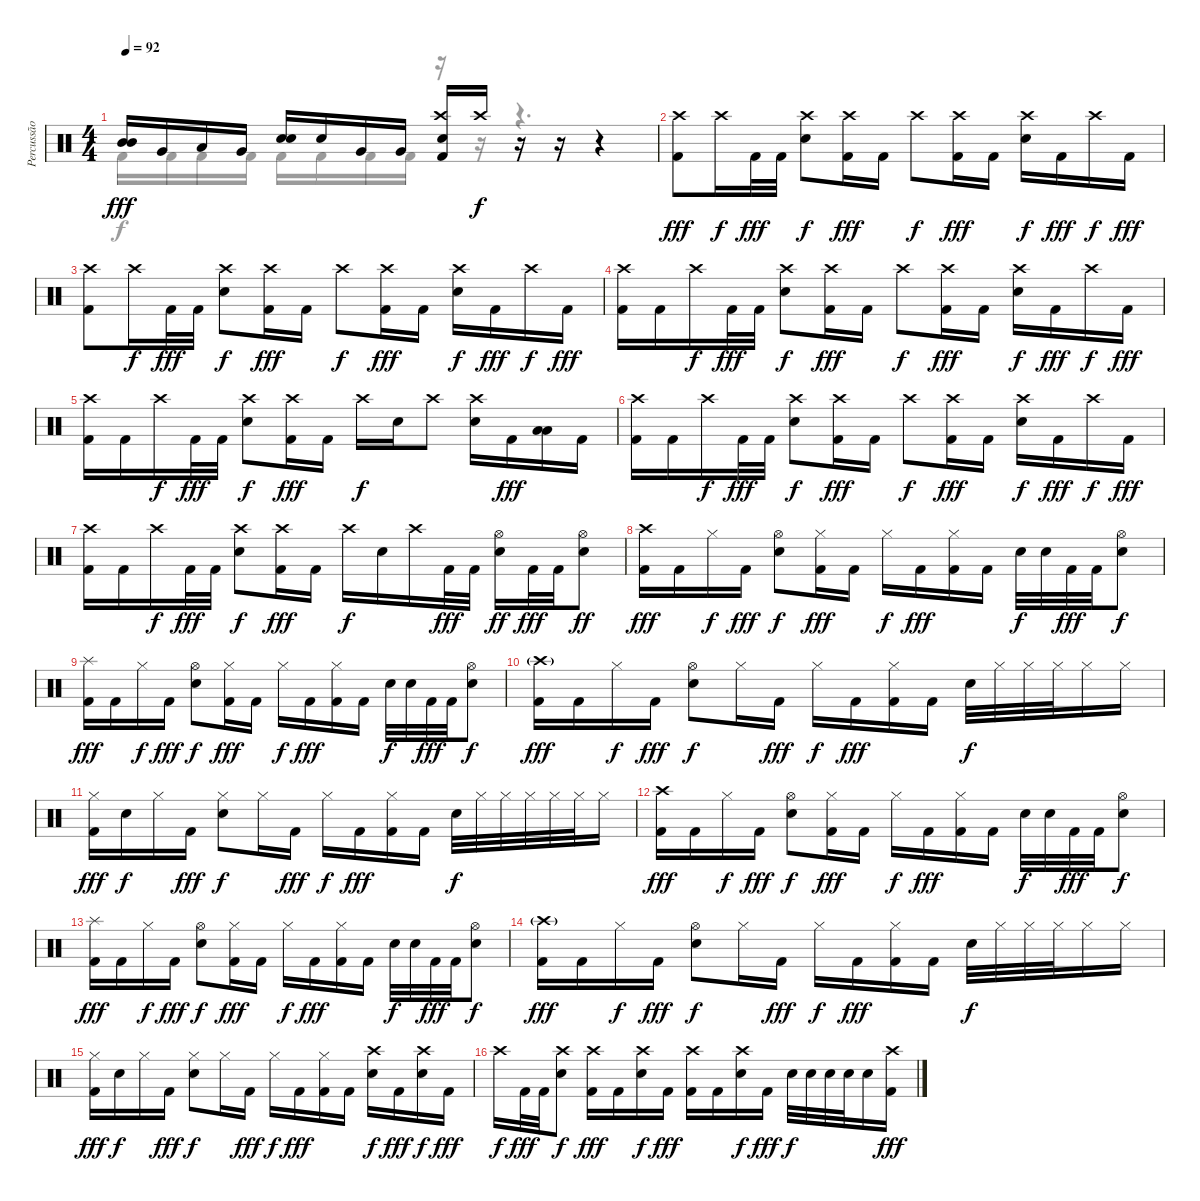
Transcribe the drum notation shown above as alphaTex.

\track ("Percussão" "Percussão") {instrument percussion}
\staff {score}
\articulation defaults
\voice
\ts (4 4)
\tempo 92
\clef neutral
\ks c
("Mid Tom (hit)" "Mid Tom (hit)").16{bd 60 dy fff} "Very Low Tom (hit)".16 "Low Tom (hit)".16 "Very Low Tom (hit)".16 ("Electric Snare (hit)" "Electric Snare (hit)").16{bd 60} "Electric Snare (hit)".16 "Very Low Tom (hit)".16 "Very Low Tom (hit)".16 ("Crash high (hit)" "Electric Snare (hit)" "Kick (hit) 2").16{volume 11} "Crash high (hit)".16{dy f volume 0} r.16 r.16 r.4 |
("Crash high (hit)" "Kick (hit) 2").8{dy fff volume 11} "Crash high (hit)".16{dy f} "Kick (hit) 2".32{dy fff} "Kick (hit) 2".32 ("Crash high (hit)" "Electric Snare (hit)").8{dy f} ("Crash high (hit)" "Kick (hit) 2").16{dy fff} "Kick (hit) 2".16 "Crash high (hit)".8{dy f} ("Crash high (hit)" "Kick (hit) 2").16{dy fff} "Kick (hit) 2".16 ("Crash high (hit)" "Electric Snare (hit)").16{dy f} "Kick (hit) 2".16{dy fff} "Crash high (hit)".16{dy f} "Kick (hit) 2".16{dy fff} |
("Crash high (hit)" "Kick (hit) 2").8 "Crash high (hit)".16{dy f} "Kick (hit) 2".32{dy fff} "Kick (hit) 2".32 ("Crash high (hit)" "Electric Snare (hit)").8{dy f} ("Crash high (hit)" "Kick (hit) 2").16{dy fff} "Kick (hit) 2".16 "Crash high (hit)".8{dy f} ("Crash high (hit)" "Kick (hit) 2").16{dy fff} "Kick (hit) 2".16 ("Crash high (hit)" "Electric Snare (hit)").16{dy f} "Kick (hit) 2".16{dy fff} "Crash high (hit)".16{dy f} "Kick (hit) 2".16{dy fff} |
("Crash high (hit)" "Kick (hit) 2").16 "Kick (hit) 2".16 "Crash high (hit)".16{dy f} "Kick (hit) 2".32{dy fff} "Kick (hit) 2".32 ("Crash high (hit)" "Electric Snare (hit)").8{dy f} ("Crash high (hit)" "Kick (hit) 2").16{dy fff} "Kick (hit) 2".16 "Crash high (hit)".8{dy f} ("Crash high (hit)" "Kick (hit) 2").16{dy fff} "Kick (hit) 2".16 ("Crash high (hit)" "Electric Snare (hit)").16{dy f} "Kick (hit) 2".16{dy fff} "Crash high (hit)".16{dy f} "Kick (hit) 2".16{dy fff} |
("Crash high (hit)" "Kick (hit) 2").16 "Kick (hit) 2".16 "Crash high (hit)".16{dy f} "Kick (hit) 2".32{dy fff} "Kick (hit) 2".32 ("Crash high (hit)" "Electric Snare (hit)").8{dy f} ("Crash high (hit)" "Kick (hit) 2").16{dy fff} "Kick (hit) 2".16 "Crash high (hit)".16{dy f} "Electric Snare (hit)".16 "Crash high (hit)".8 ("Crash high (hit)" "Electric Snare (hit)").16 "Kick (hit) 2".16{dy fff} ("Low Tom (hit)" "Low Tom (hit)").16{bd 120 volume 16} "Kick (hit) 2".16{volume 11} |
("Crash high (hit)" "Kick (hit) 2").16 "Kick (hit) 2".16 "Crash high (hit)".16{dy f} "Kick (hit) 2".32{dy fff} "Kick (hit) 2".32 ("Crash high (hit)" "Electric Snare (hit)").8{dy f} ("Crash high (hit)" "Kick (hit) 2").16{dy fff} "Kick (hit) 2".16 "Crash high (hit)".8{dy f} ("Crash high (hit)" "Kick (hit) 2").16{dy fff} "Kick (hit) 2".16 ("Crash high (hit)" "Electric Snare (hit)").16{dy f} "Kick (hit) 2".16{dy fff} "Crash high (hit)".16{dy f} "Kick (hit) 2".16{dy fff} |
("Crash high (hit)" "Kick (hit) 2").16 "Kick (hit) 2".16 "Crash high (hit)".16{dy f} "Kick (hit) 2".32{dy fff} "Kick (hit) 2".32 ("Crash high (hit)" "Electric Snare (hit)").8{dy f} ("Crash high (hit)" "Kick (hit) 2").16{dy fff} "Kick (hit) 2".16 "Crash high (hit)".16{dy f} "Electric Snare (hit)".16 "Crash high (hit)".16 "Kick (hit) 2".32{dy fff} "Kick (hit) 2".32 ("Hi-Hat (open)" "Electric Snare (hit)").16{dy ff} "Kick (hit) 2".32{dy fff} "Kick (hit) 2".32 ("Hi-Hat (open)" "Electric Snare (hit)").8{dy ff} |
("Crash high (hit)" "Kick (hit) 2").16{dy fff} "Kick (hit) 2".16 "Hi-Hat (closed)".16{dy f} "Kick (hit) 2".16{dy fff} ("Hi-Hat (open)" "Electric Snare (hit)").8{dy f} ("Hi-Hat (closed)" "Kick (hit) 2").16{dy fff} "Kick (hit) 2".16 "Hi-Hat (closed)".16{dy f} "Kick (hit) 2".16{dy fff} ("Hi-Hat (closed)" "Kick (hit) 2").16 "Kick (hit) 2".16 "Electric Snare (hit)".32{dy f} "Electric Snare (hit)".32 "Kick (hit) 2".32{dy fff} "Kick (hit) 2".32 ("Hi-Hat (open)" "Electric Snare (hit)").8{dy f} |
("Splash (hit)" "Kick (hit) 2").16{dy fff} "Kick (hit) 2".16 "Hi-Hat (closed)".16{dy f} "Kick (hit) 2".16{dy fff} ("Hi-Hat (open)" "Electric Snare (hit)").8{dy f} ("Hi-Hat (closed)" "Kick (hit) 2").16{dy fff} "Kick (hit) 2".16 "Hi-Hat (closed)".16{dy f} "Kick (hit) 2".16{dy fff} ("Hi-Hat (closed)" "Kick (hit) 2").16 "Kick (hit) 2".16 "Electric Snare (hit)".32{dy f} "Electric Snare (hit)".32 "Kick (hit) 2".32{dy fff} "Kick (hit) 2".32 ("Hi-Hat (open)" "Electric Snare (hit)").8{dy f} |
("Crash high (hit)"{g} "Kick (hit) 2").16{dy fff} "Kick (hit) 2".16 "Hi-Hat (closed)".16{dy f} "Kick (hit) 2".16{dy fff} ("Hi-Hat (open)" "Electric Snare (hit)").8{dy f} "Hi-Hat (closed)".16 "Kick (hit) 2".16{dy fff} "Hi-Hat (closed)".16{dy f} "Kick (hit) 2".16{dy fff} ("Hi-Hat (closed)" "Kick (hit) 2").16 "Kick (hit) 2".16 "Electric Snare (hit)".32{dy f} "Hi-Hat (closed)".32 "Hi-Hat (closed)".32 "Hi-Hat (closed)".32 "Hi-Hat (closed)".16 "Hi-Hat (closed)".16 |
("Hi-Hat (closed)" "Kick (hit) 2").16{dy fff} "Electric Snare (hit)".16{dy f} "Hi-Hat (closed)".16 "Kick (hit) 2".16{dy fff} ("Hi-Hat (closed)" "Electric Snare (hit)").8{dy f} "Hi-Hat (closed)".16 "Kick (hit) 2".16{dy fff} "Hi-Hat (closed)".16{dy f} "Kick (hit) 2".16{dy fff} ("Hi-Hat (closed)" "Kick (hit) 2").16 "Kick (hit) 2".16 "Electric Snare (hit)".32{dy f} "Hi-Hat (closed)".32 "Hi-Hat (closed)".32 "Hi-Hat (closed)".32 "Hi-Hat (closed)".32 "Hi-Hat (closed)".32 "Hi-Hat (closed)".16 |
("Crash high (hit)" "Kick (hit) 2").16{dy fff} "Kick (hit) 2".16 "Hi-Hat (closed)".16{dy f} "Kick (hit) 2".16{dy fff} ("Hi-Hat (open)" "Electric Snare (hit)").8{dy f} ("Hi-Hat (closed)" "Kick (hit) 2").16{dy fff} "Kick (hit) 2".16 "Hi-Hat (closed)".16{dy f} "Kick (hit) 2".16{dy fff} ("Hi-Hat (closed)" "Kick (hit) 2").16 "Kick (hit) 2".16 "Electric Snare (hit)".32{dy f} "Electric Snare (hit)".32 "Kick (hit) 2".32{dy fff} "Kick (hit) 2".32 ("Hi-Hat (open)" "Electric Snare (hit)").8{dy f} |
("Splash (hit)" "Kick (hit) 2").16{dy fff} "Kick (hit) 2".16 "Hi-Hat (closed)".16{dy f} "Kick (hit) 2".16{dy fff} ("Hi-Hat (open)" "Electric Snare (hit)").8{dy f} ("Hi-Hat (closed)" "Kick (hit) 2").16{dy fff} "Kick (hit) 2".16 "Hi-Hat (closed)".16{dy f} "Kick (hit) 2".16{dy fff} ("Hi-Hat (closed)" "Kick (hit) 2").16 "Kick (hit) 2".16 "Electric Snare (hit)".32{dy f} "Electric Snare (hit)".32 "Kick (hit) 2".32{dy fff} "Kick (hit) 2".32 ("Hi-Hat (open)" "Electric Snare (hit)").8{dy f} |
("Crash high (hit)"{g} "Kick (hit) 2").16{dy fff} "Kick (hit) 2".16 "Hi-Hat (closed)".16{dy f} "Kick (hit) 2".16{dy fff} ("Hi-Hat (open)" "Electric Snare (hit)").8{dy f} "Hi-Hat (closed)".16 "Kick (hit) 2".16{dy fff} "Hi-Hat (closed)".16{dy f} "Kick (hit) 2".16{dy fff} ("Hi-Hat (closed)" "Kick (hit) 2").16 "Kick (hit) 2".16 "Electric Snare (hit)".32{dy f} "Hi-Hat (closed)".32 "Hi-Hat (closed)".32 "Hi-Hat (closed)".32 "Hi-Hat (closed)".16 "Hi-Hat (closed)".16 |
("Hi-Hat (closed)" "Kick (hit) 2").16{dy fff} "Electric Snare (hit)".16{dy f} "Hi-Hat (closed)".16 "Kick (hit) 2".16{dy fff} ("Hi-Hat (closed)" "Electric Snare (hit)").8{dy f} "Hi-Hat (closed)".16 "Kick (hit) 2".16{dy fff} "Hi-Hat (closed)".16{dy f} "Kick (hit) 2".16{dy fff} ("Hi-Hat (closed)" "Kick (hit) 2").16 "Kick (hit) 2".16 ("Crash high (hit)" "Electric Snare (hit)").16{dy f} "Kick (hit) 2".16{dy fff} ("Crash high (hit)" "Electric Snare (hit)").16{dy f} "Kick (hit) 2".16{dy fff} |
"Crash high (hit)".16{dy f} "Kick (hit) 2".32{dy fff} "Kick (hit) 2".32 ("Crash high (hit)" "Electric Snare (hit)").8{dy f} ("Crash high (hit)" "Kick (hit) 2").16{dy fff} "Kick (hit) 2".16 ("Crash high (hit)" "Electric Snare (hit)").16{dy f} "Kick (hit) 2".16{dy fff} ("Crash high (hit)" "Kick (hit) 2").16 "Kick (hit) 2".16 ("Crash high (hit)" "Electric Snare (hit)").16{dy f} "Kick (hit) 2".16{dy fff} "Electric Snare (hit)".32{dy f} "Electric Snare (hit)".32 "Electric Snare (hit)".32 "Electric Snare (hit)".32 "Electric Snare (hit)".16 ("Crash high (hit)" "Kick (hit) 2").16{dy fff}
\voice
\clef neutral
\ottava regular
\simile none
\ks c "Kick (hit) 2".16{dy f} "Kick (hit) 2".16 "Kick (hit) 2".16 "Kick (hit) 2".16 "Kick (hit) 2".16 "Kick (hit) 2".16 "Kick (hit) 2".16 "Kick (hit) 2".16
r.16 r.16 r.4{d} |
|
|
|
|
|
|
|
|
|
|
|
|
|
|
